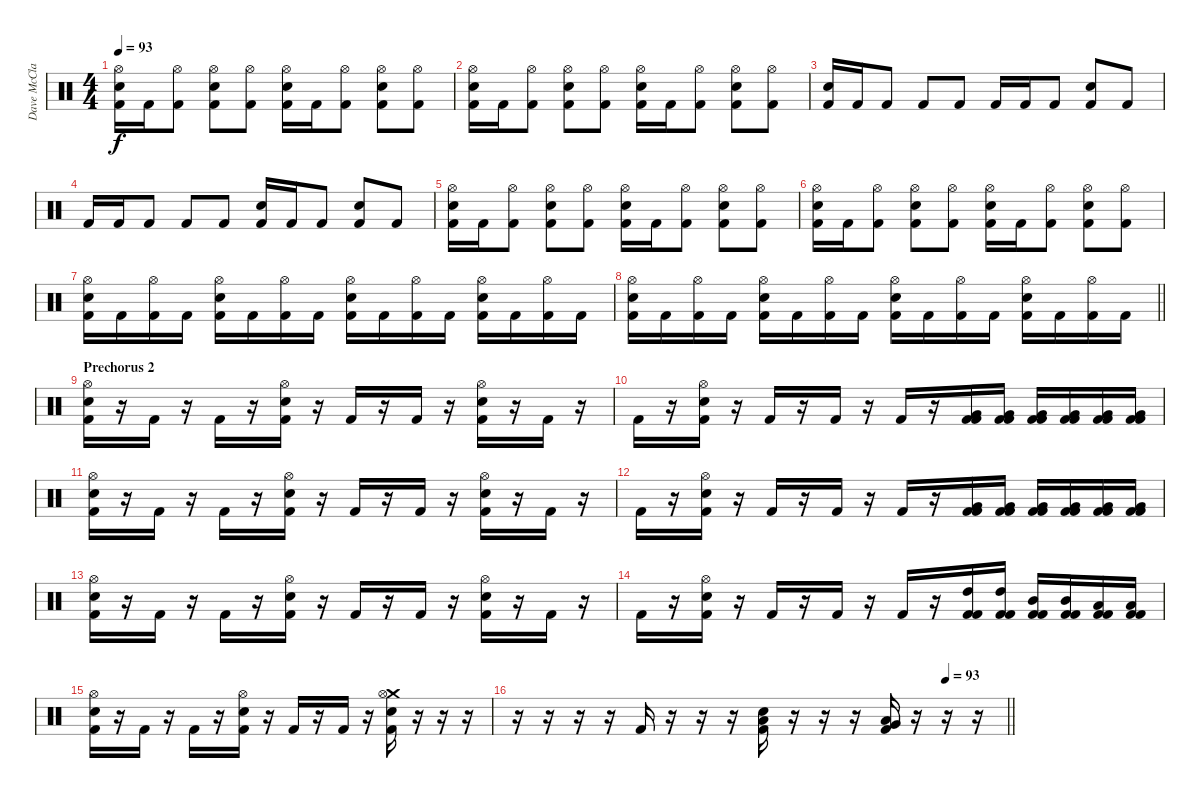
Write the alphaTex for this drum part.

\track ("Dave McClain" "Dave McCla") {instrument percussion}
\staff {score}
\articulation defaults
\ts (4 4)
\tempo 93
\clef neutral
\ks c
("Hi-Hat (open)" "Snare (hit) 2" "Kick (hit) 2").16{dy f} "Kick (hit) 2".16 ("Hi-Hat (open)" "Kick (hit) 2").8 ("Hi-Hat (open)" "Snare (hit) 2" "Kick (hit) 2").8 ("Hi-Hat (open)" "Kick (hit) 2").8 ("Hi-Hat (open)" "Snare (hit) 2" "Kick (hit) 2").16 "Kick (hit) 2".16 ("Hi-Hat (open)" "Kick (hit) 2").8 ("Hi-Hat (open)" "Snare (hit) 2" "Kick (hit) 2").8 ("Hi-Hat (open)" "Kick (hit) 2").8 |
("Hi-Hat (open)" "Snare (hit) 2" "Kick (hit) 2").16 "Kick (hit) 2".16 ("Hi-Hat (open)" "Kick (hit) 2").8 ("Hi-Hat (open)" "Snare (hit) 2" "Kick (hit) 2").8 ("Hi-Hat (open)" "Kick (hit) 2").8 ("Hi-Hat (open)" "Snare (hit) 2" "Kick (hit) 2").16 "Kick (hit) 2".16 ("Hi-Hat (open)" "Kick (hit) 2").8 ("Hi-Hat (open)" "Snare (hit) 2" "Kick (hit) 2").8 ("Hi-Hat (open)" "Kick (hit) 2").8 |
("Snare (hit) 2" "Kick (hit) 2").16 "Kick (hit) 2".16 "Kick (hit) 2".8 "Kick (hit) 2".8 "Kick (hit) 2".8 "Kick (hit) 2".16 "Kick (hit) 2".16 "Kick (hit) 2".8 ("Snare (hit) 2" "Kick (hit) 2").8 "Kick (hit) 2".8 |
"Kick (hit) 2".16 "Kick (hit) 2".16 "Kick (hit) 2".8 "Kick (hit) 2".8 "Kick (hit) 2".8 ("Snare (hit) 2" "Kick (hit) 2").16 "Kick (hit) 2".16 "Kick (hit) 2".8 ("Snare (hit) 2" "Kick (hit) 2").8 "Kick (hit) 2".8 |
("Hi-Hat (open)" "Snare (hit) 2" "Kick (hit) 2").16 "Kick (hit) 2".16 ("Hi-Hat (open)" "Kick (hit) 2").8 ("Hi-Hat (open)" "Snare (hit) 2" "Kick (hit) 2").8 ("Hi-Hat (open)" "Kick (hit) 2").8 ("Hi-Hat (open)" "Snare (hit) 2" "Kick (hit) 2").16 "Kick (hit) 2".16 ("Hi-Hat (open)" "Kick (hit) 2").8 ("Hi-Hat (open)" "Snare (hit) 2" "Kick (hit) 2").8 ("Hi-Hat (open)" "Kick (hit) 2").8 |
("Hi-Hat (open)" "Snare (hit) 2" "Kick (hit) 2").16 "Kick (hit) 2".16 ("Hi-Hat (open)" "Kick (hit) 2").8 ("Hi-Hat (open)" "Snare (hit) 2" "Kick (hit) 2").8 ("Hi-Hat (open)" "Kick (hit) 2").8 ("Hi-Hat (open)" "Snare (hit) 2" "Kick (hit) 2").16 "Kick (hit) 2".16 ("Hi-Hat (open)" "Kick (hit) 2").8 ("Hi-Hat (open)" "Snare (hit) 2" "Kick (hit) 2").8 ("Hi-Hat (open)" "Kick (hit) 2").8 |
("Hi-Hat (open)" "Snare (hit) 2" "Kick (hit) 2").16 "Kick (hit) 2".16 ("Hi-Hat (open)" "Kick (hit) 2").16 "Kick (hit) 2".16 ("Hi-Hat (open)" "Snare (hit) 2" "Kick (hit) 2").16 "Kick (hit) 2".16 ("Hi-Hat (open)" "Kick (hit) 2").16 "Kick (hit) 2".16 ("Hi-Hat (open)" "Snare (hit) 2" "Kick (hit) 2").16 "Kick (hit) 2".16 ("Hi-Hat (open)" "Kick (hit) 2").16 "Kick (hit) 2".16 ("Hi-Hat (open)" "Snare (hit) 2" "Kick (hit) 2").16 "Kick (hit) 2".16 ("Hi-Hat (open)" "Kick (hit) 2").16 "Kick (hit) 2".16 |
\barLineRight lightlight
("Hi-Hat (open)" "Snare (hit) 2" "Kick (hit) 2").16 "Kick (hit) 2".16 ("Hi-Hat (open)" "Kick (hit) 2").16 "Kick (hit) 2".16 ("Hi-Hat (open)" "Snare (hit) 2" "Kick (hit) 2").16 "Kick (hit) 2".16 ("Hi-Hat (open)" "Kick (hit) 2").16 "Kick (hit) 2".16 ("Hi-Hat (open)" "Snare (hit) 2" "Kick (hit) 2").16 "Kick (hit) 2".16 ("Hi-Hat (open)" "Kick (hit) 2").16 "Kick (hit) 2".16 ("Hi-Hat (open)" "Snare (hit) 2" "Kick (hit) 2").16 "Kick (hit) 2".16 ("Hi-Hat (open)" "Kick (hit) 2").16 "Kick (hit) 2".16 |
\section ("" "Prechorus 2")
("Hi-Hat (open)" "Snare (hit) 2" "Kick (hit) 2").16 r.16 "Kick (hit) 2".16 r.16 "Kick (hit) 2".16 r.16 ("Hi-Hat (open)" "Snare (hit) 2" "Kick (hit) 2").16 r.16 "Kick (hit) 2".16 r.16 "Kick (hit) 2".16 r.16 ("Hi-Hat (open)" "Snare (hit) 2" "Kick (hit) 2").16 r.16 "Kick (hit) 2".16 r.16 |
"Kick (hit) 2".16 r.16 ("Hi-Hat (open)" "Snare (hit) 2" "Kick (hit) 2").16 r.16 "Kick (hit) 2".16 r.16 "Kick (hit) 2".16 r.16 "Kick (hit) 2".16 r.16 ("Very Low Tom (hit)" "Kick (hit) 2" "Kick (hit) 2").16 ("Very Low Tom (hit)" "Kick (hit) 2" "Kick (hit) 2").16 ("Very Low Tom (hit)" "Kick (hit) 2" "Kick (hit) 2").16 ("Very Low Tom (hit)" "Kick (hit) 2" "Kick (hit) 2").16 ("Very Low Tom (hit)" "Kick (hit) 2" "Kick (hit) 2").16 ("Very Low Tom (hit)" "Kick (hit) 2" "Kick (hit) 2").16 |
("Hi-Hat (open)" "Snare (hit) 2" "Kick (hit) 2").16 r.16 "Kick (hit) 2".16 r.16 "Kick (hit) 2".16 r.16 ("Hi-Hat (open)" "Snare (hit) 2" "Kick (hit) 2").16 r.16 "Kick (hit) 2".16 r.16 "Kick (hit) 2".16 r.16 ("Hi-Hat (open)" "Snare (hit) 2" "Kick (hit) 2").16 r.16 "Kick (hit) 2".16 r.16 |
"Kick (hit) 2".16 r.16 ("Hi-Hat (open)" "Snare (hit) 2" "Kick (hit) 2").16 r.16 "Kick (hit) 2".16 r.16 "Kick (hit) 2".16 r.16 "Kick (hit) 2".16 r.16 ("Very Low Tom (hit)" "Kick (hit) 2" "Kick (hit) 2").16 ("Very Low Tom (hit)" "Kick (hit) 2" "Kick (hit) 2").16 ("Very Low Tom (hit)" "Kick (hit) 2" "Kick (hit) 2").16 ("Very Low Tom (hit)" "Kick (hit) 2" "Kick (hit) 2").16 ("Very Low Tom (hit)" "Kick (hit) 2" "Kick (hit) 2").16 ("Very Low Tom (hit)" "Kick (hit) 2" "Kick (hit) 2").16 |
("Hi-Hat (open)" "Snare (hit) 2" "Kick (hit) 2").16 r.16 "Kick (hit) 2".16 r.16 "Kick (hit) 2".16 r.16 ("Hi-Hat (open)" "Snare (hit) 2" "Kick (hit) 2").16 r.16 "Kick (hit) 2".16 r.16 "Kick (hit) 2".16 r.16 ("Hi-Hat (open)" "Snare (hit) 2" "Kick (hit) 2").16 r.16 "Kick (hit) 2".16 r.16 |
"Kick (hit) 2".16 r.16 ("Hi-Hat (open)" "Snare (hit) 2" "Kick (hit) 2").16 r.16 "Kick (hit) 2".16 r.16 "Kick (hit) 2".16 r.16 "Kick (hit) 2".16 r.16 ("High Tom (hit)" "Kick (hit) 2" "Kick (hit) 2").16 ("High Tom (hit)" "Kick (hit) 2" "Kick (hit) 2").16 ("Mid Tom (hit)" "Kick (hit) 2" "Kick (hit) 2").16 ("Mid Tom (hit)" "Kick (hit) 2" "Kick (hit) 2").16 ("Low Tom (hit)" "Kick (hit) 2" "Kick (hit) 2").16 ("Low Tom (hit)" "Kick (hit) 2" "Kick (hit) 2").16 |
("Hi-Hat (open)" "Snare (hit) 2" "Kick (hit) 2").16 r.16 "Kick (hit) 2".16 r.16 "Kick (hit) 2".16 r.16 ("Hi-Hat (open)" "Snare (hit) 2" "Kick (hit) 2").16 r.16 "Kick (hit) 2".16 r.16 "Kick (hit) 2".16 r.16 ("Crash medium (hit)" "Hi-Hat (open)" "Snare (hit) 2" "Kick (hit) 2").16 r.16 r.16 r.16 |
\tempo (93 0.875)
\barLineRight lightlight
r.16 r.16 r.16 r.16 "Kick (hit) 2".16 r.16 r.16 r.16 ("Low Tom (hit)" "Snare (hit) 2" "Kick (hit) 2").16 r.16 r.16 r.16 ("Very Low Tom (hit)" "Low Tom (hit)" "Kick (hit) 2").16 r.16 r.16 r.16
